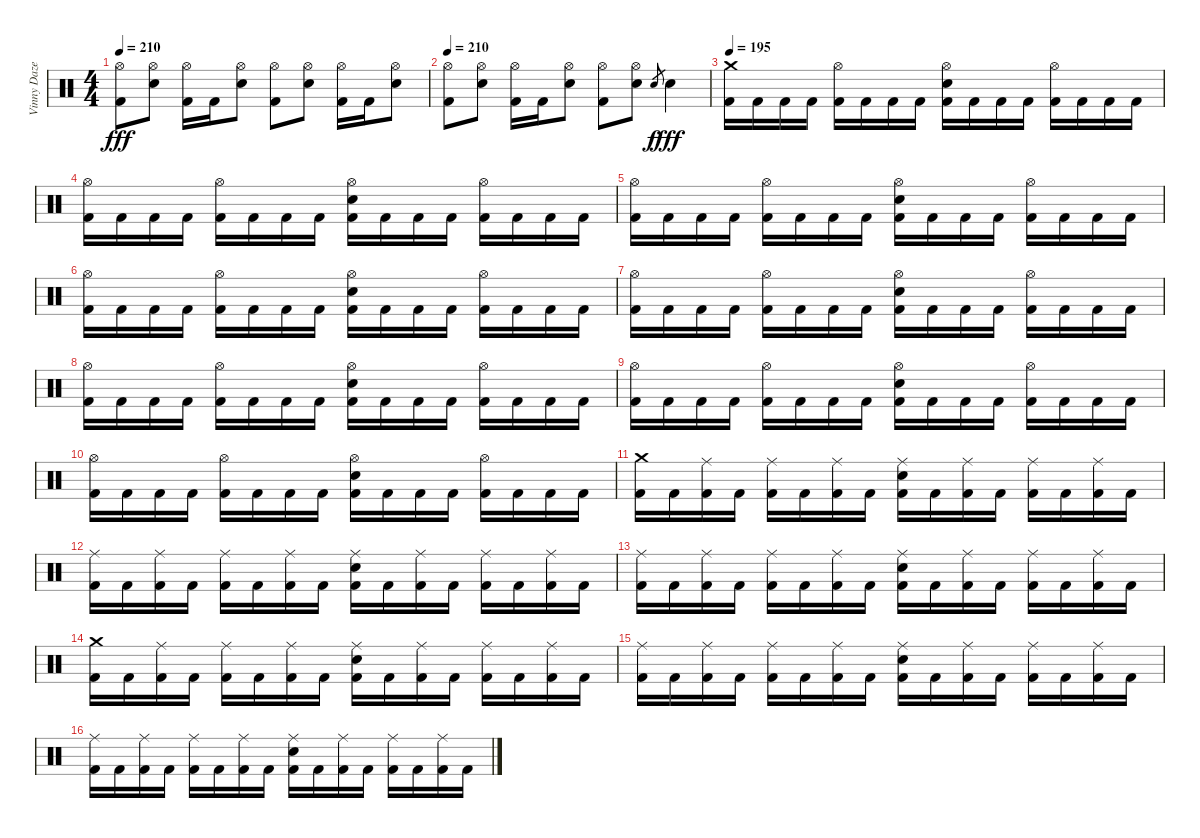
\track ("Vinny Daze (R.I.P.)" "Vinny Daze") {instrument percussion}
\staff {score}
\articulation defaults
\ts (4 4)
\tempo 210
\clef neutral
\ks c
("Hi-Hat (open)" "Kick (hit) 2").8{dy fff} ("Hi-Hat (open)" "Electric Snare (hit)").8 ("Hi-Hat (open)" "Kick (hit) 2").16 "Kick (hit) 2".16 ("Hi-Hat (open)" "Electric Snare (hit)").8 ("Hi-Hat (open)" "Kick (hit) 2").8 ("Hi-Hat (open)" "Electric Snare (hit)").8 ("Hi-Hat (open)" "Kick (hit) 2").16 "Kick (hit) 2".16 ("Hi-Hat (open)" "Electric Snare (hit)").8 |
\tempo 210
("Hi-Hat (open)" "Kick (hit) 2").8 ("Hi-Hat (open)" "Electric Snare (hit)").8 ("Hi-Hat (open)" "Kick (hit) 2").16 "Kick (hit) 2".16 ("Hi-Hat (open)" "Electric Snare (hit)").8 ("Hi-Hat (open)" "Kick (hit) 2").8 ("Hi-Hat (open)" "Electric Snare (hit)").8 "Electric Snare (hit)".8{gr dy f} "Electric Snare (hit)".4{dy fff} |
\tempo 195
("Crash medium (hit)" "Kick (hit) 2").16 "Kick (hit) 2".16 "Kick (hit) 2".16 "Kick (hit) 2".16 ("Hi-Hat (open)" "Kick (hit) 2").16 "Kick (hit) 2".16 "Kick (hit) 2".16 "Kick (hit) 2".16 ("Hi-Hat (open)" "Electric Snare (hit)" "Kick (hit) 2").16 "Kick (hit) 2".16 "Kick (hit) 2".16 "Kick (hit) 2".16 ("Hi-Hat (open)" "Kick (hit) 2").16 "Kick (hit) 2".16 "Kick (hit) 2".16 "Kick (hit) 2".16 |
("Hi-Hat (open)" "Kick (hit) 2").16 "Kick (hit) 2".16 "Kick (hit) 2".16 "Kick (hit) 2".16 ("Hi-Hat (open)" "Kick (hit) 2").16 "Kick (hit) 2".16 "Kick (hit) 2".16 "Kick (hit) 2".16 ("Hi-Hat (open)" "Electric Snare (hit)" "Kick (hit) 2").16 "Kick (hit) 2".16 "Kick (hit) 2".16 "Kick (hit) 2".16 ("Hi-Hat (open)" "Kick (hit) 2").16 "Kick (hit) 2".16 "Kick (hit) 2".16 "Kick (hit) 2".16 |
("Hi-Hat (open)" "Kick (hit) 2").16 "Kick (hit) 2".16 "Kick (hit) 2".16 "Kick (hit) 2".16 ("Hi-Hat (open)" "Kick (hit) 2").16 "Kick (hit) 2".16 "Kick (hit) 2".16 "Kick (hit) 2".16 ("Hi-Hat (open)" "Electric Snare (hit)" "Kick (hit) 2").16 "Kick (hit) 2".16 "Kick (hit) 2".16 "Kick (hit) 2".16 ("Hi-Hat (open)" "Kick (hit) 2").16 "Kick (hit) 2".16 "Kick (hit) 2".16 "Kick (hit) 2".16 |
("Hi-Hat (open)" "Kick (hit) 2").16 "Kick (hit) 2".16 "Kick (hit) 2".16 "Kick (hit) 2".16 ("Hi-Hat (open)" "Kick (hit) 2").16 "Kick (hit) 2".16 "Kick (hit) 2".16 "Kick (hit) 2".16 ("Hi-Hat (open)" "Electric Snare (hit)" "Kick (hit) 2").16 "Kick (hit) 2".16 "Kick (hit) 2".16 "Kick (hit) 2".16 ("Hi-Hat (open)" "Kick (hit) 2").16 "Kick (hit) 2".16 "Kick (hit) 2".16 "Kick (hit) 2".16 |
("Hi-Hat (open)" "Kick (hit) 2").16 "Kick (hit) 2".16 "Kick (hit) 2".16 "Kick (hit) 2".16 ("Hi-Hat (open)" "Kick (hit) 2").16 "Kick (hit) 2".16 "Kick (hit) 2".16 "Kick (hit) 2".16 ("Hi-Hat (open)" "Electric Snare (hit)" "Kick (hit) 2").16 "Kick (hit) 2".16 "Kick (hit) 2".16 "Kick (hit) 2".16 ("Hi-Hat (open)" "Kick (hit) 2").16 "Kick (hit) 2".16 "Kick (hit) 2".16 "Kick (hit) 2".16 |
("Hi-Hat (open)" "Kick (hit) 2").16 "Kick (hit) 2".16 "Kick (hit) 2".16 "Kick (hit) 2".16 ("Hi-Hat (open)" "Kick (hit) 2").16 "Kick (hit) 2".16 "Kick (hit) 2".16 "Kick (hit) 2".16 ("Hi-Hat (open)" "Electric Snare (hit)" "Kick (hit) 2").16 "Kick (hit) 2".16 "Kick (hit) 2".16 "Kick (hit) 2".16 ("Hi-Hat (open)" "Kick (hit) 2").16 "Kick (hit) 2".16 "Kick (hit) 2".16 "Kick (hit) 2".16 |
("Hi-Hat (open)" "Kick (hit) 2").16 "Kick (hit) 2".16 "Kick (hit) 2".16 "Kick (hit) 2".16 ("Hi-Hat (open)" "Kick (hit) 2").16 "Kick (hit) 2".16 "Kick (hit) 2".16 "Kick (hit) 2".16 ("Hi-Hat (open)" "Electric Snare (hit)" "Kick (hit) 2").16 "Kick (hit) 2".16 "Kick (hit) 2".16 "Kick (hit) 2".16 ("Hi-Hat (open)" "Kick (hit) 2").16 "Kick (hit) 2".16 "Kick (hit) 2".16 "Kick (hit) 2".16 |
("Hi-Hat (open)" "Kick (hit) 2").16 "Kick (hit) 2".16 "Kick (hit) 2".16 "Kick (hit) 2".16 ("Hi-Hat (open)" "Kick (hit) 2").16 "Kick (hit) 2".16 "Kick (hit) 2".16 "Kick (hit) 2".16 ("Hi-Hat (open)" "Electric Snare (hit)" "Kick (hit) 2").16 "Kick (hit) 2".16 "Kick (hit) 2".16 "Kick (hit) 2".16 ("Hi-Hat (open)" "Kick (hit) 2").16 "Kick (hit) 2".16 "Kick (hit) 2".16 "Kick (hit) 2".16 |
("Crash medium (hit)" "Kick (hit) 2").16 "Kick (hit) 2".16 ("Ride (middle)" "Kick (hit) 2").16 "Kick (hit) 2".16 ("Ride (middle)" "Kick (hit) 2").16 "Kick (hit) 2".16 ("Ride (middle)" "Kick (hit) 2").16 "Kick (hit) 2".16 ("Ride (middle)" "Electric Snare (hit)" "Kick (hit) 2").16 "Kick (hit) 2".16 ("Ride (middle)" "Kick (hit) 2").16 "Kick (hit) 2".16 ("Ride (middle)" "Kick (hit) 2").16 "Kick (hit) 2".16 ("Ride (middle)" "Kick (hit) 2").16 "Kick (hit) 2".16 |
("Ride (middle)" "Kick (hit) 2").16 "Kick (hit) 2".16 ("Ride (middle)" "Kick (hit) 2").16 "Kick (hit) 2".16 ("Ride (middle)" "Kick (hit) 2").16 "Kick (hit) 2".16 ("Ride (middle)" "Kick (hit) 2").16 "Kick (hit) 2".16 ("Ride (middle)" "Electric Snare (hit)" "Kick (hit) 2").16 "Kick (hit) 2".16 ("Ride (middle)" "Kick (hit) 2").16 "Kick (hit) 2".16 ("Ride (middle)" "Kick (hit) 2").16 "Kick (hit) 2".16 ("Ride (middle)" "Kick (hit) 2").16 "Kick (hit) 2".16 |
("Ride (middle)" "Kick (hit) 2").16 "Kick (hit) 2".16 ("Ride (middle)" "Kick (hit) 2").16 "Kick (hit) 2".16 ("Ride (middle)" "Kick (hit) 2").16 "Kick (hit) 2".16 ("Ride (middle)" "Kick (hit) 2").16 "Kick (hit) 2".16 ("Ride (middle)" "Electric Snare (hit)" "Kick (hit) 2").16 "Kick (hit) 2".16 ("Ride (middle)" "Kick (hit) 2").16 "Kick (hit) 2".16 ("Ride (middle)" "Kick (hit) 2").16 "Kick (hit) 2".16 ("Ride (middle)" "Kick (hit) 2").16 "Kick (hit) 2".16 |
("Crash medium (hit)" "Kick (hit) 2").16 "Kick (hit) 2".16 ("Ride (middle)" "Kick (hit) 2").16 "Kick (hit) 2".16 ("Ride (middle)" "Kick (hit) 2").16 "Kick (hit) 2".16 ("Ride (middle)" "Kick (hit) 2").16 "Kick (hit) 2".16 ("Ride (middle)" "Electric Snare (hit)" "Kick (hit) 2").16 "Kick (hit) 2".16 ("Ride (middle)" "Kick (hit) 2").16 "Kick (hit) 2".16 ("Ride (middle)" "Kick (hit) 2").16 "Kick (hit) 2".16 ("Ride (middle)" "Kick (hit) 2").16 "Kick (hit) 2".16 |
("Ride (middle)" "Kick (hit) 2").16 "Kick (hit) 2".16 ("Ride (middle)" "Kick (hit) 2").16 "Kick (hit) 2".16 ("Ride (middle)" "Kick (hit) 2").16 "Kick (hit) 2".16 ("Ride (middle)" "Kick (hit) 2").16 "Kick (hit) 2".16 ("Ride (middle)" "Electric Snare (hit)" "Kick (hit) 2").16 "Kick (hit) 2".16 ("Ride (middle)" "Kick (hit) 2").16 "Kick (hit) 2".16 ("Ride (middle)" "Kick (hit) 2").16 "Kick (hit) 2".16 ("Ride (middle)" "Kick (hit) 2").16 "Kick (hit) 2".16 |
("Ride (middle)" "Kick (hit) 2").16 "Kick (hit) 2".16 ("Ride (middle)" "Kick (hit) 2").16 "Kick (hit) 2".16 ("Ride (middle)" "Kick (hit) 2").16 "Kick (hit) 2".16 ("Ride (middle)" "Kick (hit) 2").16 "Kick (hit) 2".16 ("Ride (middle)" "Electric Snare (hit)" "Kick (hit) 2").16 "Kick (hit) 2".16 ("Ride (middle)" "Kick (hit) 2").16 "Kick (hit) 2".16 ("Ride (middle)" "Kick (hit) 2").16 "Kick (hit) 2".16 ("Ride (middle)" "Kick (hit) 2").16 "Kick (hit) 2".16
